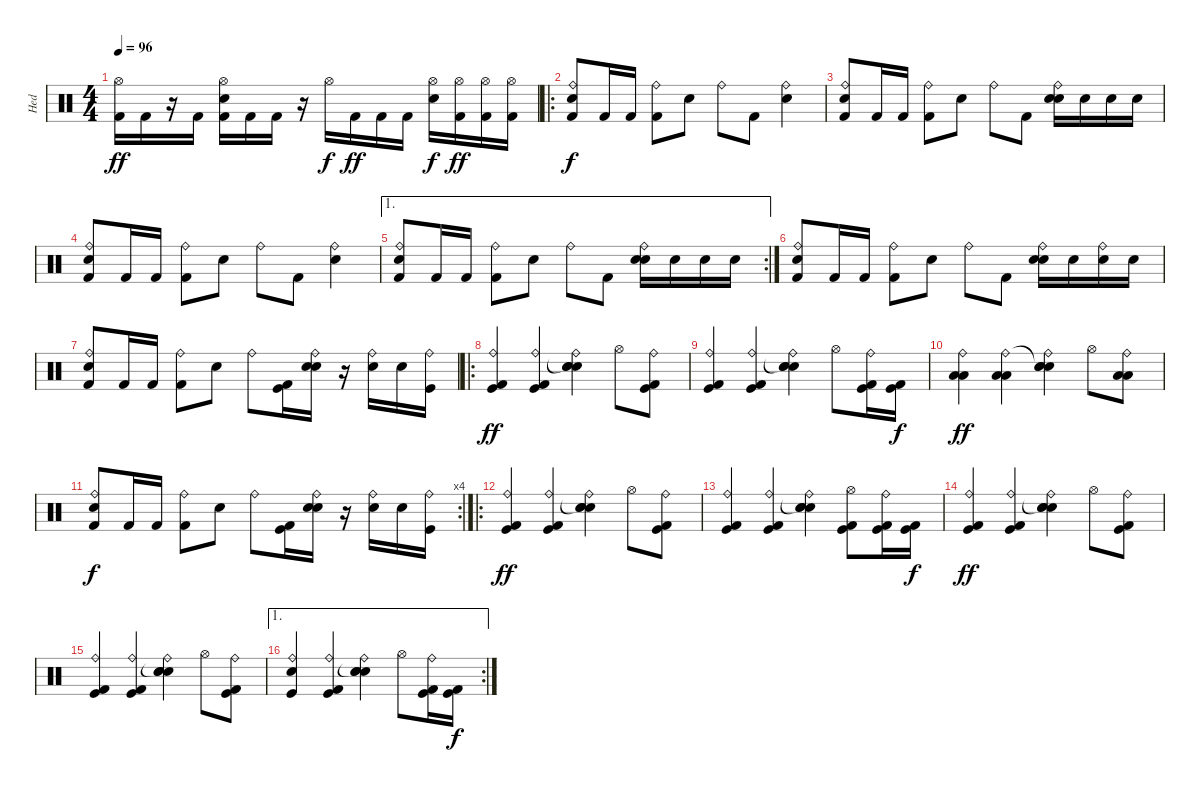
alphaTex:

\track ("Hed" "Hed") {instrument percussion}
\staff {score}
\articulation defaults
\ts (4 4)
\tempo 96
\clef neutral
\ks c
("Hi-Hat (open)" "Kick (hit) 2").16{dy ff} "Kick (hit) 2".16 r.16 "Kick (hit) 2".16 ("Hi-Hat (open)" "Snare (hit) 2" "Kick (hit) 2").16 "Kick (hit) 2".16 "Kick (hit) 2".16 r.16 "Hi-Hat (open)".16{dy f} "Kick (hit) 2".16{dy ff} "Kick (hit) 2".16 "Kick (hit) 2".16 ("Hi-Hat (open)" "Snare (hit) 2").16{dy f} ("Hi-Hat (open)" "Kick (hit) 2").16{dy ff} ("Hi-Hat (open)" "Kick (hit) 2").16 ("Hi-Hat (open)" "Kick (hit) 2").16 |
\ro
("Ride (bell)" "Electric Snare (hit)" "Kick (hit) 2").8{dy f} "Kick (hit) 2".16 "Kick (hit) 2".16 ("Ride (bell)" "Kick (hit) 2").8 "Electric Snare (hit)".8 "Ride (bell)".8 "Kick (hit) 2".8 ("Ride (bell)" "Electric Snare (hit)").4 |
("Ride (bell)" "Electric Snare (hit)" "Kick (hit) 2").8 "Kick (hit) 2".16 "Kick (hit) 2".16 ("Ride (bell)" "Kick (hit) 2").8 "Electric Snare (hit)".8 "Ride (bell)".8 "Kick (hit) 2".8 ("Ride (bell)" "Snare (hit) 2" "Electric Snare (hit)").16 "Snare (hit) 2".16 "Snare (hit) 2".16 "Snare (hit) 2".16 |
("Ride (bell)" "Electric Snare (hit)" "Kick (hit) 2").8 "Kick (hit) 2".16 "Kick (hit) 2".16 ("Ride (bell)" "Kick (hit) 2").8 "Electric Snare (hit)".8 "Ride (bell)".8 "Kick (hit) 2".8 ("Ride (bell)" "Electric Snare (hit)").4 |
\ae 1
\rc 2
("Ride (bell)" "Electric Snare (hit)" "Kick (hit) 2").8 "Kick (hit) 2".16 "Kick (hit) 2".16 ("Ride (bell)" "Kick (hit) 2").8 "Electric Snare (hit)".8 "Ride (bell)".8 "Kick (hit) 2".8 ("Ride (bell)" "Snare (hit) 2" "Electric Snare (hit)").16 "Snare (hit) 2".16 "Snare (hit) 2".16 "Snare (hit) 2".16 |
("Ride (bell)" "Electric Snare (hit)" "Kick (hit) 2").8 "Kick (hit) 2".16 "Kick (hit) 2".16 ("Ride (bell)" "Kick (hit) 2").8 "Electric Snare (hit)".8 "Ride (bell)".8 "Kick (hit) 2".8 ("Ride (bell)" "Snare (hit) 2" "Electric Snare (hit)").16 "Snare (hit) 2".16 ("Ride (bell)" "Snare (hit) 2").16 "Snare (hit) 2".16 |
("Ride (bell)" "Electric Snare (hit)" "Kick (hit) 2").8 "Kick (hit) 2".16 "Kick (hit) 2".16 ("Ride (bell)" "Kick (hit) 2").8 "Electric Snare (hit)".8 "Ride (bell)".8 ("Kick (hit)" "Kick (hit) 2").16 ("Ride (bell)" "Snare (hit) 2" "Electric Snare (hit)").16 r.16 ("Ride (bell)" "Snare (hit) 2").16 "Snare (hit) 2".16 ("Ride (bell)" "Kick (hit)").16 |
\ro
("Ride (bell)" "Kick (hit) 2" "Kick (hit)").4{dy ff} ("Ride (bell)" "Kick (hit) 2" "Kick (hit)").4 ("Snare (hit)"{t} "Ride (bell)" "Electric Snare (hit)" "Electric Snare (hit)").4 "Hi-Hat (open)".8 ("Ride (bell)" "Kick (hit) 2" "Kick (hit)").8 |
("Ride (bell)" "Kick (hit) 2" "Kick (hit)").4 ("Ride (bell)" "Kick (hit) 2" "Kick (hit)").4 ("Snare (hit)"{t} "Ride (bell)" "Electric Snare (hit)" "Electric Snare (hit)").4 "Hi-Hat (open)".8 ("Ride (bell)" "Kick (hit) 2" "Kick (hit)").16 ("Kick (hit) 2" "Kick (hit)").16{dy f} |
("Ride (bell)" "Low Floor Tom (hit)" "Low Floor Tom (hit)").4{dy ff} ("Ride (bell)" "Low Floor Tom (hit)" "Low Floor Tom (hit)").4 ("Snare (hit)"{t} "Ride (bell)" "Electric Snare (hit)" "Electric Snare (hit)").4 "Hi-Hat (open)".8 ("Ride (bell)" "Low Floor Tom (hit)" "Low Floor Tom (hit)").8 |
\rc 4
("Ride (bell)" "Electric Snare (hit)" "Kick (hit) 2").8{dy f} "Kick (hit) 2".16 "Kick (hit) 2".16 ("Ride (bell)" "Kick (hit) 2").8 "Electric Snare (hit)".8 "Ride (bell)".8 ("Kick (hit)" "Kick (hit) 2").16 ("Ride (bell)" "Snare (hit) 2" "Electric Snare (hit)").16 r.16 ("Ride (bell)" "Snare (hit) 2").16 "Snare (hit) 2".16 ("Ride (bell)" "Kick (hit)").16 |
\ro
("Ride (bell)" "Kick (hit) 2" "Kick (hit)").4{dy ff} ("Ride (bell)" "Kick (hit) 2" "Kick (hit)").4 ("Snare (hit)"{t} "Ride (bell)" "Electric Snare (hit)" "Electric Snare (hit)").4 "Hi-Hat (open)".8 ("Ride (bell)" "Kick (hit) 2" "Kick (hit)").8 |
("Ride (bell)" "Kick (hit) 2" "Kick (hit)").4 ("Ride (bell)" "Kick (hit) 2" "Kick (hit)").4 ("Snare (hit)"{t} "Ride (bell)" "Electric Snare (hit)" "Electric Snare (hit)").4 ("Hi-Hat (open)" "Kick (hit) 2" "Kick (hit)").8 ("Ride (bell)" "Kick (hit) 2" "Kick (hit)").16 ("Kick (hit) 2" "Kick (hit)").16{dy f} |
("Ride (bell)" "Kick (hit) 2" "Kick (hit)").4{dy ff} ("Ride (bell)" "Kick (hit) 2" "Kick (hit)").4 ("Snare (hit)"{t} "Ride (bell)" "Electric Snare (hit)" "Electric Snare (hit)").4 "Hi-Hat (open)".8 ("Ride (bell)" "Kick (hit) 2" "Kick (hit)").8 |
("Ride (bell)" "Kick (hit) 2" "Kick (hit)").4 ("Ride (bell)" "Kick (hit) 2" "Kick (hit)").4 ("Snare (hit)"{t} "Ride (bell)" "Electric Snare (hit)" "Electric Snare (hit)").4 "Hi-Hat (open)".8 ("Ride (bell)" "Kick (hit) 2" "Kick (hit)").8 |
\ae 1
\rc 2
("Ride (bell)" "Snare (hit)" "Kick (hit)").4 ("Ride (bell)" "Kick (hit) 2" "Kick (hit)").4 ("Snare (hit)"{t} "Ride (bell)" "Electric Snare (hit)" "Electric Snare (hit)").4 "Hi-Hat (open)".8 ("Ride (bell)" "Kick (hit) 2" "Kick (hit)").16 ("Kick (hit) 2" "Kick (hit)").16{dy f}
